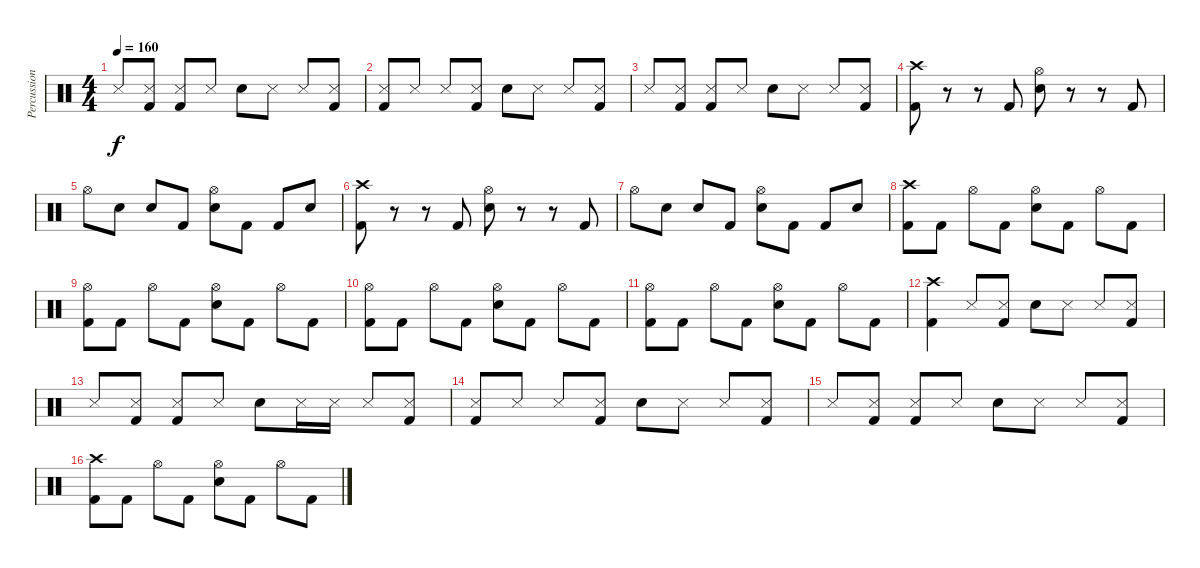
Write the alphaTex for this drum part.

\track ("Percussion" "Percussion") {instrument percussion}
\staff {score}
\articulation defaults
\ts (4 4)
\tempo 160
\clef neutral
\ks c "Snare (side stick) 3".8{dy f}
("Snare (side stick) 3" "Kick (hit) 2").8 ("Snare (side stick) 3" "Kick (hit) 2").8 "Snare (side stick) 3".8 "Electric Snare (hit)".8 "Snare (side stick) 3".8 "Snare (side stick) 3".8 ("Snare (side stick) 3" "Kick (hit) 2").8 |
("Snare (side stick) 3" "Kick (hit) 2").8 "Snare (side stick) 3".8 "Snare (side stick) 3".8 ("Snare (side stick) 3" "Kick (hit) 2").8 "Electric Snare (hit)".8 "Snare (side stick) 3".8 "Snare (side stick) 3".8 ("Snare (side stick) 3" "Kick (hit) 2").8 |
"Snare (side stick) 3".8 ("Snare (side stick) 3" "Kick (hit) 2").8 ("Snare (side stick) 3" "Kick (hit) 2").8 "Snare (side stick) 3".8 "Electric Snare (hit)".8 "Snare (side stick) 3".8 "Snare (side stick) 3".8 ("Snare (side stick) 3" "Kick (hit) 2").8 |
("Crash high (hit)" "Kick (hit) 2").8 r.8 r.8 "Kick (hit) 2".8 ("Hi-Hat (open)" "Electric Snare (hit)").8 r.8 r.8 "Kick (hit) 2".8 |
"Hi-Hat (open)".8 "Electric Snare (hit)".8 "Electric Snare (hit)".8 "Kick (hit) 2".8 ("Hi-Hat (open)" "Electric Snare (hit)").8 "Kick (hit) 2".8 "Kick (hit) 2".8 "Electric Snare (hit)".8 |
("Crash high (hit)" "Kick (hit) 2").8 r.8 r.8 "Kick (hit) 2".8 ("Hi-Hat (open)" "Electric Snare (hit)").8 r.8 r.8 "Kick (hit) 2".8 |
"Hi-Hat (open)".8 "Electric Snare (hit)".8 "Electric Snare (hit)".8 "Kick (hit) 2".8 ("Hi-Hat (open)" "Electric Snare (hit)").8 "Kick (hit) 2".8 "Kick (hit) 2".8 "Electric Snare (hit)".8 |
("Crash high (hit)" "Kick (hit) 2").8 "Kick (hit) 2".8 "Hi-Hat (open)".8 "Kick (hit) 2".8 ("Hi-Hat (open)" "Electric Snare (hit)").8 "Kick (hit) 2".8 "Hi-Hat (open)".8 "Kick (hit) 2".8 |
("Hi-Hat (open)" "Kick (hit) 2").8 "Kick (hit) 2".8 "Hi-Hat (open)".8 "Kick (hit) 2".8 ("Hi-Hat (open)" "Electric Snare (hit)").8 "Kick (hit) 2".8 "Hi-Hat (open)".8 "Kick (hit) 2".8 |
("Hi-Hat (open)" "Kick (hit) 2").8 "Kick (hit) 2".8 "Hi-Hat (open)".8 "Kick (hit) 2".8 ("Hi-Hat (open)" "Electric Snare (hit)").8 "Kick (hit) 2".8 "Hi-Hat (open)".8 "Kick (hit) 2".8 |
("Hi-Hat (open)" "Kick (hit) 2").8 "Kick (hit) 2".8 "Hi-Hat (open)".8 "Kick (hit) 2".8 ("Hi-Hat (open)" "Electric Snare (hit)").8 "Kick (hit) 2".8 "Hi-Hat (open)".8 "Kick (hit) 2".8 |
("Crash high (hit)" "Kick (hit) 2").4 "Snare (side stick) 3".8 ("Snare (side stick) 3" "Kick (hit) 2").8 "Electric Snare (hit)".8 "Snare (side stick) 3".8 "Snare (side stick) 3".8 ("Snare (side stick) 3" "Kick (hit) 2").8 |
"Snare (side stick) 3".8 ("Snare (side stick) 3" "Kick (hit) 2").8 ("Snare (side stick) 3" "Kick (hit) 2").8 "Snare (side stick) 3".8 "Electric Snare (hit)".8 "Snare (side stick) 3".16 "Snare (side stick) 3".16 "Snare (side stick) 3".8 ("Snare (side stick) 3" "Kick (hit) 2").8 |
("Snare (side stick) 3" "Kick (hit) 2").8 "Snare (side stick) 3".8 "Snare (side stick) 3".8 ("Snare (side stick) 3" "Kick (hit) 2").8 "Electric Snare (hit)".8 "Snare (side stick) 3".8 "Snare (side stick) 3".8 ("Snare (side stick) 3" "Kick (hit) 2").8 |
"Snare (side stick) 3".8 ("Snare (side stick) 3" "Kick (hit) 2").8 ("Snare (side stick) 3" "Kick (hit) 2").8 "Snare (side stick) 3".8 "Electric Snare (hit)".8 "Snare (side stick) 3".8 "Snare (side stick) 3".8 ("Snare (side stick) 3" "Kick (hit) 2").8 |
("Crash high (hit)" "Kick (hit) 2").8 "Kick (hit) 2".8 "Hi-Hat (open)".8 "Kick (hit) 2".8 ("Hi-Hat (open)" "Electric Snare (hit)").8 "Kick (hit) 2".8 "Hi-Hat (open)".8 "Kick (hit) 2".8
